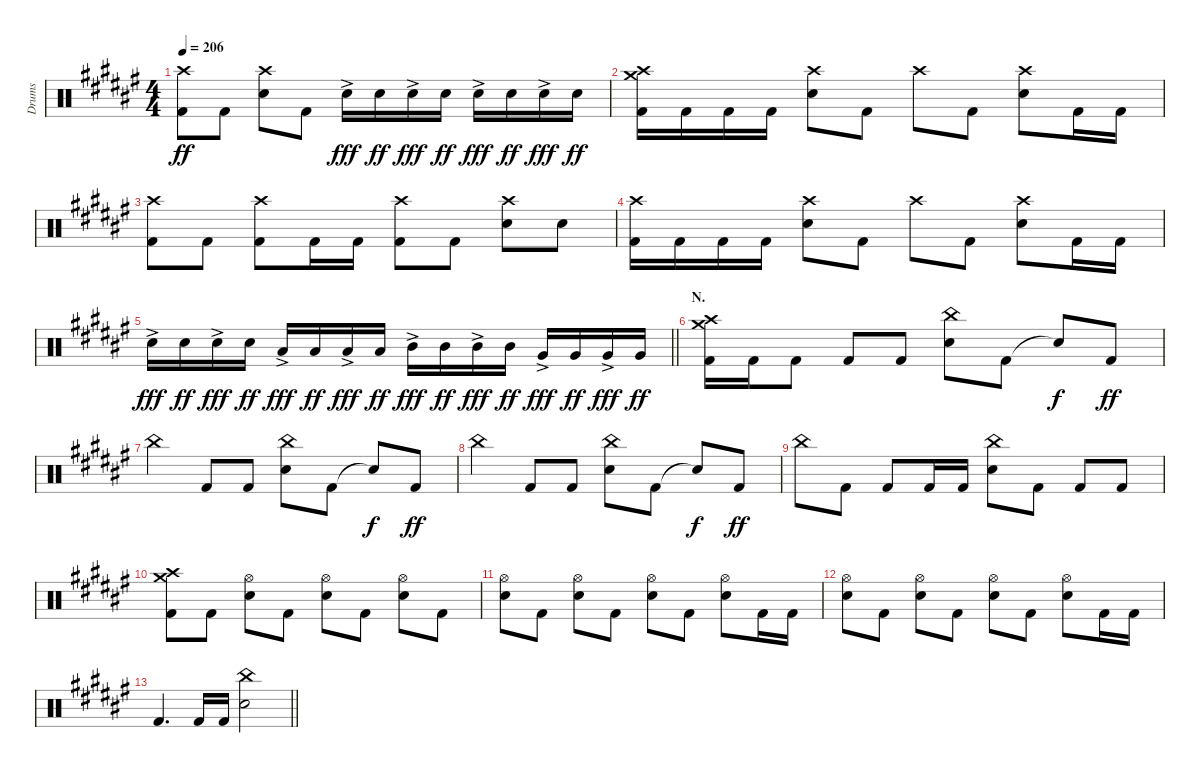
\track ("Drums" "Drums") {instrument percussion}
\staff {score}
\articulation defaults
\ts (4 4)
\tempo 206
\clef neutral
\ks f#
("Crash high (hit)" "Kick (hit) 2").8{dy ff} "Kick (hit) 2".8 ("Crash high (hit)" "Electric Snare (hit)").8 "Kick (hit) 2".8 "Electric Snare (hit)"{ac}.16{dy fff} "Electric Snare (hit)".16{dy ff} "Electric Snare (hit)"{ac}.16{dy fff} "Electric Snare (hit)".16{dy ff} "Electric Snare (hit)"{ac}.16{dy fff} "Electric Snare (hit)".16{dy ff} "Electric Snare (hit)"{ac}.16{dy fff} "Electric Snare (hit)".16{dy ff} |
("Crash medium (hit)" "Crash high (hit)" "Kick (hit) 2").16 "Kick (hit) 2".16 "Kick (hit) 2".16 "Kick (hit) 2".16 ("Crash high (hit)" "Electric Snare (hit)").8 "Kick (hit) 2".8 "Crash high (hit)".8 "Kick (hit) 2".8 ("Crash high (hit)" "Electric Snare (hit)").8 "Kick (hit) 2".16 "Kick (hit) 2".16 |
("Crash high (hit)" "Kick (hit) 2").8 "Kick (hit) 2".8 ("Crash high (hit)" "Kick (hit) 2").8 "Kick (hit) 2".16 "Kick (hit) 2".16 ("Crash high (hit)" "Kick (hit) 2").8 "Kick (hit) 2".8 ("Crash high (hit)" "Electric Snare (hit)").8 "Electric Snare (hit)".8 |
("Crash high (hit)" "Kick (hit) 2").16 "Kick (hit) 2".16 "Kick (hit) 2".16 "Kick (hit) 2".16 ("Crash high (hit)" "Electric Snare (hit)").8 "Kick (hit) 2".8 "Crash high (hit)".8 "Kick (hit) 2".8 ("Crash high (hit)" "Electric Snare (hit)").8 "Kick (hit) 2".16 "Kick (hit) 2".16 |
\barLineRight lightlight "Electric Snare (hit)"{ac}.16{dy fff} "Electric Snare (hit)".16{dy ff} "Electric Snare (hit)"{ac}.16{dy fff} "Electric Snare (hit)".16{dy ff} "Low Tom (hit)"{ac}.16{dy fff} "Low Tom (hit)".16{dy ff} "Low Tom (hit)"{ac}.16{dy fff} "Low Tom (hit)".16{dy ff} "Mid Tom (hit)"{ac}.16{dy fff} "Mid Tom (hit)".16{dy ff} "Mid Tom (hit)"{ac}.16{dy fff} "Mid Tom (hit)".16{dy ff} "Very Low Tom (hit)"{ac}.16{dy fff} "Very Low Tom (hit)".16{dy ff} "Very Low Tom (hit)"{ac}.16{dy fff} "Very Low Tom (hit)".16{dy ff}
|
\section ("" "N.")
("Crash medium (hit)" "Crash high (hit)" "Kick (hit) 2").16 "Kick (hit) 2".16 "Kick (hit) 2".8 "Kick (hit) 2".8 "Kick (hit) 2".8 ("China (hit)" "Electric Snare (hit)").8 "Kick (hit) 2".8 "Snare (hit)"{t}.8{dy f} "Kick (hit) 2".8{dy ff} |
"China (hit)".4 "Kick (hit) 2".8 "Kick (hit) 2".8 ("China (hit)" "Electric Snare (hit)").8 "Kick (hit) 2".8 "Snare (hit)"{t}.8{dy f} "Kick (hit) 2".8{dy ff} |
"China (hit)".4 "Kick (hit) 2".8 "Kick (hit) 2".8 ("China (hit)" "Electric Snare (hit)").8 "Kick (hit) 2".8 "Snare (hit)"{t}.8{dy f} "Kick (hit) 2".8{dy ff} |
"China (hit)".8 "Kick (hit) 2".8 "Kick (hit) 2".8 "Kick (hit) 2".16 "Kick (hit) 2".16 ("China (hit)" "Electric Snare (hit)").8 "Kick (hit) 2".8 "Kick (hit) 2".8 "Kick (hit) 2".8 |
("Crash medium (hit)" "Crash high (hit)" "Kick (hit) 2").8 "Kick (hit) 2".8 ("Hi-Hat (open)" "Electric Snare (hit)").8 "Kick (hit) 2".8 ("Hi-Hat (open)" "Electric Snare (hit)").8 "Kick (hit) 2".8 ("Hi-Hat (open)" "Electric Snare (hit)").8 "Kick (hit) 2".8 |
("Hi-Hat (open)" "Electric Snare (hit)").8 "Kick (hit) 2".8 ("Hi-Hat (open)" "Electric Snare (hit)").8 "Kick (hit) 2".8 ("Hi-Hat (open)" "Electric Snare (hit)").8 "Kick (hit) 2".8 ("Hi-Hat (open)" "Electric Snare (hit)").8 "Kick (hit) 2".16 "Kick (hit) 2".16 |
("Hi-Hat (open)" "Electric Snare (hit)").8 "Kick (hit) 2".8 ("Hi-Hat (open)" "Electric Snare (hit)").8 "Kick (hit) 2".8 ("Hi-Hat (open)" "Electric Snare (hit)").8 "Kick (hit) 2".8 ("Hi-Hat (open)" "Electric Snare (hit)").8 "Kick (hit) 2".16 "Kick (hit) 2".16 |
\barLineRight lightlight "Kick (hit) 2".4{d} "Kick (hit) 2".16 "Kick (hit) 2".16
("China (hit)" "Electric Snare (hit)").2
